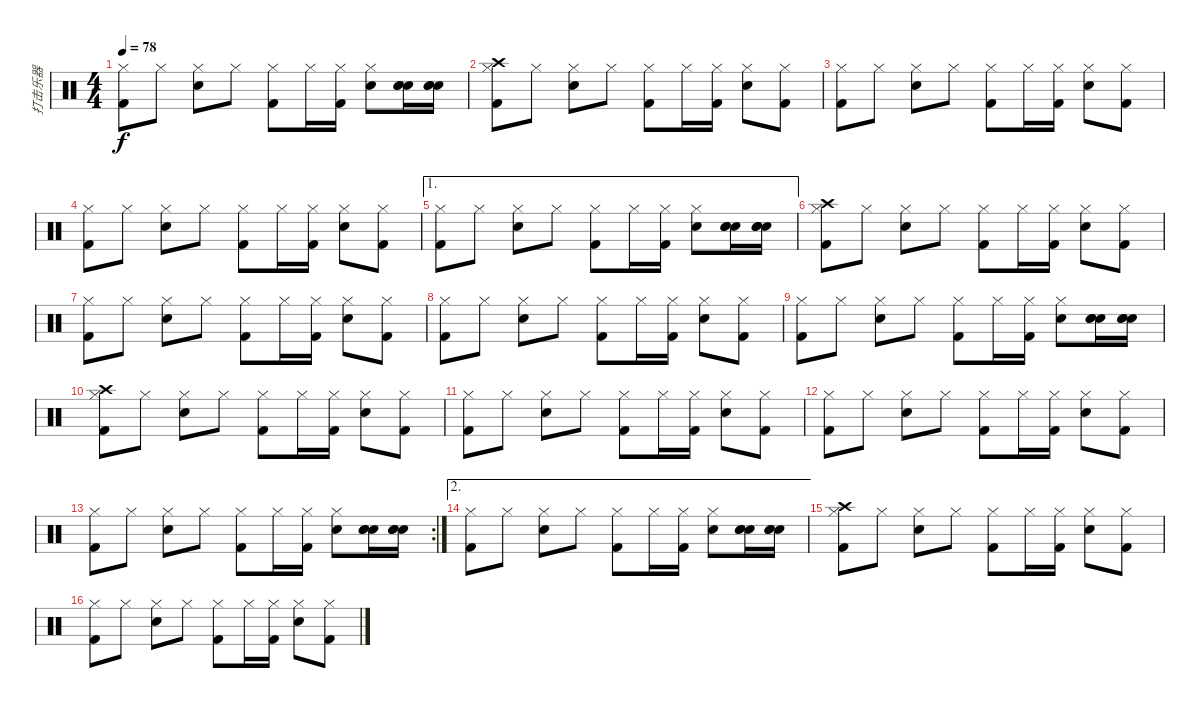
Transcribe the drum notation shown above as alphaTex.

\track ("打击乐器" "打击乐器") {instrument percussion}
\staff {score}
\articulation defaults
\ts (4 4)
\tempo 78
\clef neutral
\ks c
("Kick (hit) 2" "Hi-Hat (closed)").8{dy f} "Hi-Hat (closed)".8 ("Electric Snare (hit)" "Hi-Hat (closed)").8 "Hi-Hat (closed)".8 ("Kick (hit) 2" "Hi-Hat (closed)").8 "Hi-Hat (closed)".16 ("Kick (hit) 2" "Hi-Hat (closed)").16 ("Electric Snare (hit)" "Hi-Hat (closed)").8 ("Electric Snare (hit)" "Electric Snare (hit)" "Electric Snare (hit)").16 ("Electric Snare (hit)" "Electric Snare (hit)" "Electric Snare (hit)").16 |
("Kick (hit) 2" "Crash high (hit)" "Hi-Hat (closed)").8 "Hi-Hat (closed)".8 ("Electric Snare (hit)" "Hi-Hat (closed)").8 "Hi-Hat (closed)".8 ("Kick (hit) 2" "Hi-Hat (closed)").8 "Hi-Hat (closed)".16 ("Kick (hit) 2" "Hi-Hat (closed)").16 ("Electric Snare (hit)" "Hi-Hat (closed)").8 ("Kick (hit) 2" "Hi-Hat (closed)").8 |
("Kick (hit) 2" "Hi-Hat (closed)").8 "Hi-Hat (closed)".8 ("Electric Snare (hit)" "Hi-Hat (closed)").8 "Hi-Hat (closed)".8 ("Kick (hit) 2" "Hi-Hat (closed)").8 "Hi-Hat (closed)".16 ("Kick (hit) 2" "Hi-Hat (closed)").16 ("Electric Snare (hit)" "Hi-Hat (closed)").8 ("Kick (hit) 2" "Hi-Hat (closed)").8 |
("Kick (hit) 2" "Hi-Hat (closed)").8 "Hi-Hat (closed)".8 ("Electric Snare (hit)" "Hi-Hat (closed)").8 "Hi-Hat (closed)".8 ("Kick (hit) 2" "Hi-Hat (closed)").8 "Hi-Hat (closed)".16 ("Kick (hit) 2" "Hi-Hat (closed)").16 ("Electric Snare (hit)" "Hi-Hat (closed)").8 ("Kick (hit) 2" "Hi-Hat (closed)").8 |
\ae 1
("Kick (hit) 2" "Hi-Hat (closed)").8 "Hi-Hat (closed)".8 ("Electric Snare (hit)" "Hi-Hat (closed)").8 "Hi-Hat (closed)".8 ("Kick (hit) 2" "Hi-Hat (closed)").8 "Hi-Hat (closed)".16 ("Kick (hit) 2" "Hi-Hat (closed)").16 ("Electric Snare (hit)" "Hi-Hat (closed)").8 ("Electric Snare (hit)" "Electric Snare (hit)" "Electric Snare (hit)").16 ("Electric Snare (hit)" "Electric Snare (hit)" "Electric Snare (hit)").16 |
("Kick (hit) 2" "Crash high (hit)" "Hi-Hat (closed)").8 "Hi-Hat (closed)".8 ("Electric Snare (hit)" "Hi-Hat (closed)").8 "Hi-Hat (closed)".8 ("Kick (hit) 2" "Hi-Hat (closed)").8 "Hi-Hat (closed)".16 ("Kick (hit) 2" "Hi-Hat (closed)").16 ("Electric Snare (hit)" "Hi-Hat (closed)").8 ("Kick (hit) 2" "Hi-Hat (closed)").8 |
("Kick (hit) 2" "Hi-Hat (closed)").8 "Hi-Hat (closed)".8 ("Electric Snare (hit)" "Hi-Hat (closed)").8 "Hi-Hat (closed)".8 ("Kick (hit) 2" "Hi-Hat (closed)").8 "Hi-Hat (closed)".16 ("Kick (hit) 2" "Hi-Hat (closed)").16 ("Electric Snare (hit)" "Hi-Hat (closed)").8 ("Kick (hit) 2" "Hi-Hat (closed)").8 |
("Kick (hit) 2" "Hi-Hat (closed)").8 "Hi-Hat (closed)".8 ("Electric Snare (hit)" "Hi-Hat (closed)").8 "Hi-Hat (closed)".8 ("Kick (hit) 2" "Hi-Hat (closed)").8 "Hi-Hat (closed)".16 ("Kick (hit) 2" "Hi-Hat (closed)").16 ("Electric Snare (hit)" "Hi-Hat (closed)").8 ("Kick (hit) 2" "Hi-Hat (closed)").8 |
("Kick (hit) 2" "Hi-Hat (closed)").8 "Hi-Hat (closed)".8 ("Electric Snare (hit)" "Hi-Hat (closed)").8 "Hi-Hat (closed)".8 ("Kick (hit) 2" "Hi-Hat (closed)").8 "Hi-Hat (closed)".16 ("Kick (hit) 2" "Hi-Hat (closed)").16 ("Electric Snare (hit)" "Hi-Hat (closed)").8 ("Electric Snare (hit)" "Electric Snare (hit)" "Electric Snare (hit)").16 ("Electric Snare (hit)" "Electric Snare (hit)" "Electric Snare (hit)").16 |
("Kick (hit) 2" "Crash high (hit)" "Hi-Hat (closed)").8 "Hi-Hat (closed)".8 ("Electric Snare (hit)" "Hi-Hat (closed)").8 "Hi-Hat (closed)".8 ("Kick (hit) 2" "Hi-Hat (closed)").8 "Hi-Hat (closed)".16 ("Kick (hit) 2" "Hi-Hat (closed)").16 ("Electric Snare (hit)" "Hi-Hat (closed)").8 ("Kick (hit) 2" "Hi-Hat (closed)").8 |
("Kick (hit) 2" "Hi-Hat (closed)").8 "Hi-Hat (closed)".8 ("Electric Snare (hit)" "Hi-Hat (closed)").8 "Hi-Hat (closed)".8 ("Kick (hit) 2" "Hi-Hat (closed)").8 "Hi-Hat (closed)".16 ("Kick (hit) 2" "Hi-Hat (closed)").16 ("Electric Snare (hit)" "Hi-Hat (closed)").8 ("Kick (hit) 2" "Hi-Hat (closed)").8 |
("Kick (hit) 2" "Hi-Hat (closed)").8 "Hi-Hat (closed)".8 ("Electric Snare (hit)" "Hi-Hat (closed)").8 "Hi-Hat (closed)".8 ("Kick (hit) 2" "Hi-Hat (closed)").8 "Hi-Hat (closed)".16 ("Kick (hit) 2" "Hi-Hat (closed)").16 ("Electric Snare (hit)" "Hi-Hat (closed)").8 ("Kick (hit) 2" "Hi-Hat (closed)").8 |
\rc 2
("Kick (hit) 2" "Hi-Hat (closed)").8 "Hi-Hat (closed)".8 ("Electric Snare (hit)" "Hi-Hat (closed)").8 "Hi-Hat (closed)".8 ("Kick (hit) 2" "Hi-Hat (closed)").8 "Hi-Hat (closed)".16 ("Kick (hit) 2" "Hi-Hat (closed)").16 ("Electric Snare (hit)" "Hi-Hat (closed)").8 ("Electric Snare (hit)" "Electric Snare (hit)" "Electric Snare (hit)").16 ("Electric Snare (hit)" "Electric Snare (hit)" "Electric Snare (hit)").16 |
\ae 2
("Kick (hit) 2" "Hi-Hat (closed)").8 "Hi-Hat (closed)".8 ("Electric Snare (hit)" "Hi-Hat (closed)").8 "Hi-Hat (closed)".8 ("Kick (hit) 2" "Hi-Hat (closed)").8 "Hi-Hat (closed)".16 ("Kick (hit) 2" "Hi-Hat (closed)").16 ("Electric Snare (hit)" "Hi-Hat (closed)").8 ("Electric Snare (hit)" "Electric Snare (hit)" "Electric Snare (hit)").16 ("Electric Snare (hit)" "Electric Snare (hit)" "Electric Snare (hit)").16 |
("Kick (hit) 2" "Crash high (hit)" "Hi-Hat (closed)").8 "Hi-Hat (closed)".8 ("Electric Snare (hit)" "Hi-Hat (closed)").8 "Hi-Hat (closed)".8 ("Kick (hit) 2" "Hi-Hat (closed)").8 "Hi-Hat (closed)".16 ("Kick (hit) 2" "Hi-Hat (closed)").16 ("Electric Snare (hit)" "Hi-Hat (closed)").8 ("Kick (hit) 2" "Hi-Hat (closed)").8 |
("Kick (hit) 2" "Hi-Hat (closed)").8 "Hi-Hat (closed)".8 ("Electric Snare (hit)" "Hi-Hat (closed)").8 "Hi-Hat (closed)".8 ("Kick (hit) 2" "Hi-Hat (closed)").8 "Hi-Hat (closed)".16 ("Kick (hit) 2" "Hi-Hat (closed)").16 ("Electric Snare (hit)" "Hi-Hat (closed)").8 ("Kick (hit) 2" "Hi-Hat (closed)").8
